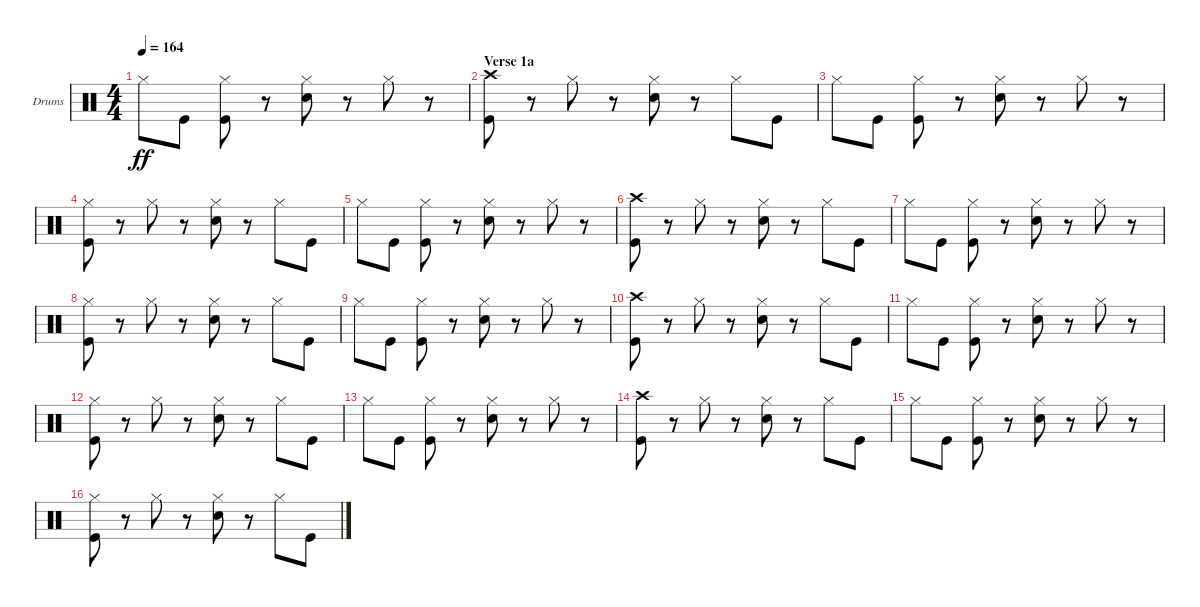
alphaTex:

\defaultSystemsLayout 4
\bracketExtendMode groupsimilarinstruments
\firstSystemTrackNameOrientation horizontal
\otherSystemsTrackNameOrientation horizontal
\track ("Drumkit" "Drums") {instrument percussion}
\staff {score}
\articulation defaults
\ts (4 4)
\tempo 164
\clef neutral
\ks c "Hi-Hat (closed)".8{dy ff} "Kick (hit)".8
("Hi-Hat (closed)" "Kick (hit)").8 r.8 ("Hi-Hat (closed)" "Snare (hit) 2").8 r.8 "Hi-Hat (closed)".8 r.8 |
\section ("" "Verse 1a")
("Kick (hit)" "Crash high (hit)").8 r.8 "Hi-Hat (closed)".8 r.8 ("Hi-Hat (closed)" "Snare (hit) 2").8 r.8 "Hi-Hat (closed)".8 "Kick (hit)".8 |
"Hi-Hat (closed)".8 "Kick (hit)".8 ("Hi-Hat (closed)" "Kick (hit)").8 r.8 ("Hi-Hat (closed)" "Snare (hit) 2").8 r.8 "Hi-Hat (closed)".8 r.8 |
("Kick (hit)" "Hi-Hat (closed)").8 r.8 "Hi-Hat (closed)".8 r.8 ("Hi-Hat (closed)" "Snare (hit) 2").8 r.8 "Hi-Hat (closed)".8 "Kick (hit)".8 |
"Hi-Hat (closed)".8 "Kick (hit)".8 ("Hi-Hat (closed)" "Kick (hit)").8 r.8 ("Hi-Hat (closed)" "Snare (hit) 2").8 r.8 "Hi-Hat (closed)".8 r.8 |
("Kick (hit)" "Crash high (hit)").8 r.8 "Hi-Hat (closed)".8 r.8 ("Hi-Hat (closed)" "Snare (hit) 2").8 r.8 "Hi-Hat (closed)".8 "Kick (hit)".8 |
"Hi-Hat (closed)".8 "Kick (hit)".8 ("Hi-Hat (closed)" "Kick (hit)").8 r.8 ("Hi-Hat (closed)" "Snare (hit) 2").8 r.8 "Hi-Hat (closed)".8 r.8 |
("Kick (hit)" "Hi-Hat (closed)").8 r.8 "Hi-Hat (closed)".8 r.8 ("Hi-Hat (closed)" "Snare (hit) 2").8 r.8 "Hi-Hat (closed)".8 "Kick (hit)".8 |
"Hi-Hat (closed)".8 "Kick (hit)".8 ("Hi-Hat (closed)" "Kick (hit)").8 r.8 ("Hi-Hat (closed)" "Snare (hit) 2").8 r.8 "Hi-Hat (closed)".8 r.8 |
("Kick (hit)" "Crash high (hit)").8 r.8 "Hi-Hat (closed)".8 r.8 ("Hi-Hat (closed)" "Snare (hit) 2").8 r.8 "Hi-Hat (closed)".8 "Kick (hit)".8 |
"Hi-Hat (closed)".8 "Kick (hit)".8 ("Hi-Hat (closed)" "Kick (hit)").8 r.8 ("Hi-Hat (closed)" "Snare (hit) 2").8 r.8 "Hi-Hat (closed)".8 r.8 |
("Kick (hit)" "Hi-Hat (closed)").8 r.8 "Hi-Hat (closed)".8 r.8 ("Hi-Hat (closed)" "Snare (hit) 2").8 r.8 "Hi-Hat (closed)".8 "Kick (hit)".8 |
"Hi-Hat (closed)".8 "Kick (hit)".8 ("Hi-Hat (closed)" "Kick (hit)").8 r.8 ("Hi-Hat (closed)" "Snare (hit) 2").8 r.8 "Hi-Hat (closed)".8 r.8 |
("Kick (hit)" "Crash high (hit)").8 r.8 "Hi-Hat (closed)".8 r.8 ("Hi-Hat (closed)" "Snare (hit) 2").8 r.8 "Hi-Hat (closed)".8 "Kick (hit)".8 |
"Hi-Hat (closed)".8 "Kick (hit)".8 ("Hi-Hat (closed)" "Kick (hit)").8 r.8 ("Hi-Hat (closed)" "Snare (hit) 2").8 r.8 "Hi-Hat (closed)".8 r.8 |
("Kick (hit)" "Hi-Hat (closed)").8 r.8 "Hi-Hat (closed)".8 r.8 ("Hi-Hat (closed)" "Snare (hit) 2").8 r.8 "Hi-Hat (closed)".8 "Kick (hit)".8
